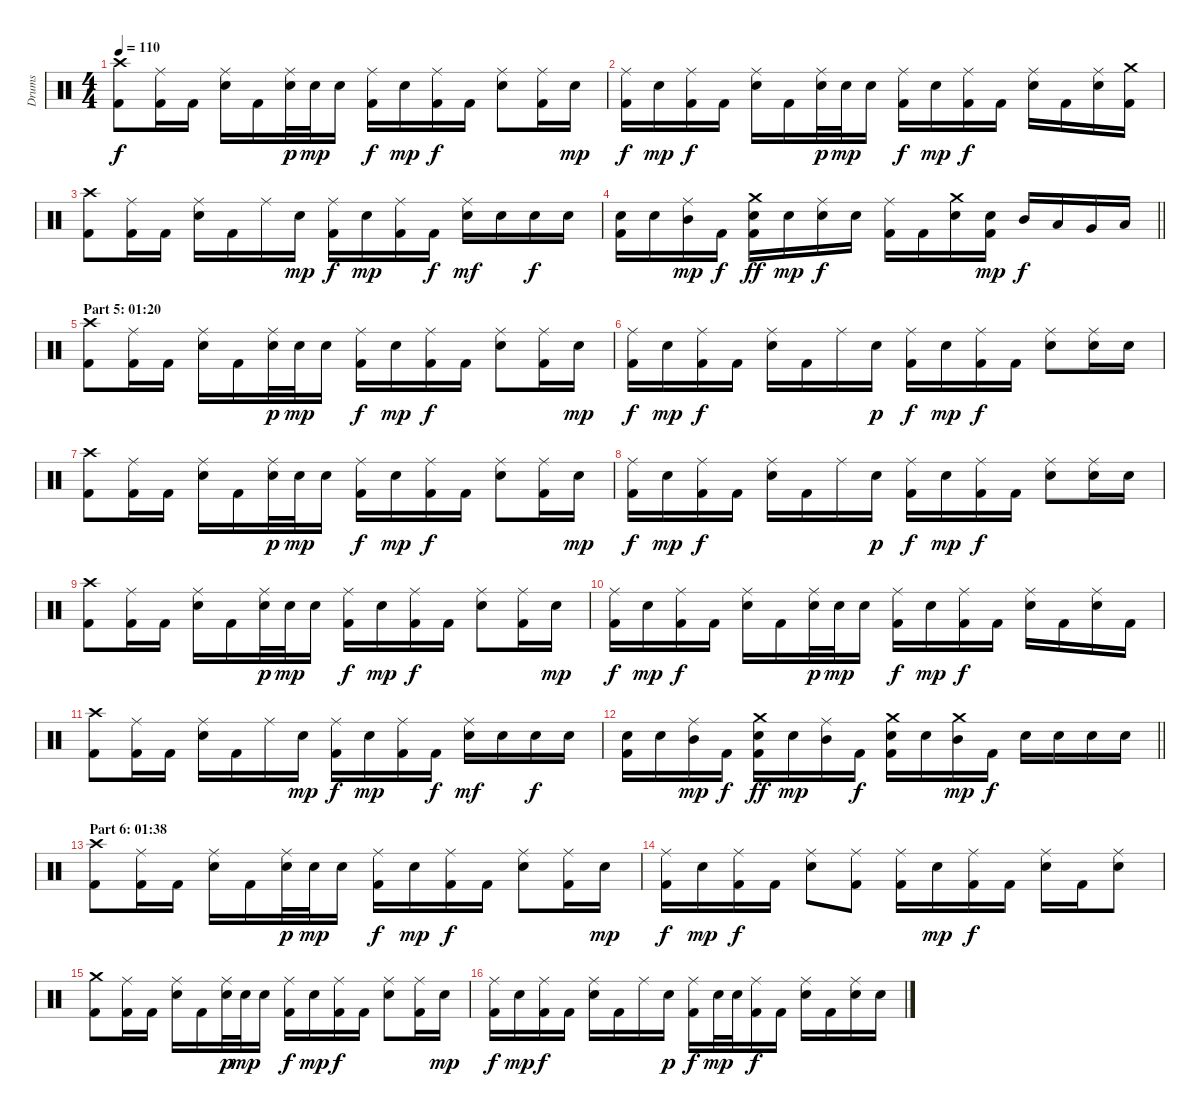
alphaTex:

\track ("Drums" "Drums") {instrument percussion}
\staff {score}
\articulation defaults
\ts (4 4)
\tempo 110
\clef neutral
\ks c
("Crash high (hit)" "Kick (hit) 2").8{dy f} ("Ride (middle)" "Kick (hit) 2").16 "Kick (hit) 2".16 ("Ride (middle)" "Electric Snare (hit)").16 "Kick (hit) 2".16 ("Ride (middle)" "Electric Snare (hit)").32{dy p} "Electric Snare (hit)".32{dy mp} "Electric Snare (hit)".16 ("Ride (middle)" "Kick (hit) 2").16{dy f} "Electric Snare (hit)".16{dy mp} ("Ride (middle)" "Kick (hit) 2").16{dy f} "Kick (hit) 2".16 ("Ride (middle)" "Electric Snare (hit)").8 ("Ride (middle)" "Kick (hit) 2").16 "Electric Snare (hit)".16{dy mp} |
("Ride (middle)" "Kick (hit) 2").16{dy f} "Electric Snare (hit)".16{dy mp} ("Ride (middle)" "Kick (hit) 2").16{dy f} "Kick (hit) 2".16 ("Ride (middle)" "Electric Snare (hit)").16 "Kick (hit) 2".16 ("Ride (middle)" "Electric Snare (hit)").32{dy p} "Electric Snare (hit)".32{dy mp} "Electric Snare (hit)".16 ("Ride (middle)" "Kick (hit) 2").16{dy f} "Electric Snare (hit)".16{dy mp} ("Ride (middle)" "Kick (hit) 2").16{dy f} "Kick (hit) 2".16 ("Ride (middle)" "Electric Snare (hit)").16 "Kick (hit) 2".16 ("Ride (middle)" "Electric Snare (hit)").16 ("Crash medium (hit)" "Kick (hit) 2").16 |
("Crash high (hit)" "Kick (hit) 2").8 ("Ride (middle)" "Kick (hit) 2").16 "Kick (hit) 2".16 ("Ride (middle)" "Electric Snare (hit)").16 "Kick (hit) 2".16 "Ride (middle)".16 "Electric Snare (hit)".16{dy mp} ("Ride (middle)" "Kick (hit) 2").16{dy f} "Electric Snare (hit)".16{dy mp} ("Ride (middle)" "Kick (hit) 2").16 "Kick (hit) 2".16{dy f} ("Ride (middle)" "Electric Snare (hit)").16{dy mf} "Electric Snare (hit)".16 "Electric Snare (hit)".16{dy f} "Electric Snare (hit)".16 |
\barLineRight lightlight
("Electric Snare (hit)" "Kick (hit) 2").16 "Electric Snare (hit)".16 ("Ride (middle)" "Mid Tom (hit)").16{dy mp} "Kick (hit) 2".16{dy f} ("Crash medium (hit)" "Electric Snare (hit)" "Kick (hit) 2").16{dy ff} "Electric Snare (hit)".16{dy mp} ("Ride (middle)" "Electric Snare (hit)").16{dy f} "Electric Snare (hit)".16 ("Ride (middle)" "Kick (hit) 2").16 "Kick (hit) 2".16 ("Crash medium (hit)" "Electric Snare (hit)").16 ("Electric Snare (hit)" "Kick (hit) 2").16{dy mp} "Mid Tom (hit)".16{dy f} "Low Tom (hit)".16 "Very Low Tom (hit)".16 "Low Floor Tom (hit)".16 |
\section ("" "Part 5: 01:20")
("Crash high (hit)" "Kick (hit) 2").8 ("Ride (middle)" "Kick (hit) 2").16 "Kick (hit) 2".16 ("Ride (middle)" "Electric Snare (hit)").16 "Kick (hit) 2".16 ("Ride (middle)" "Electric Snare (hit)").32{dy p} "Electric Snare (hit)".32{dy mp} "Electric Snare (hit)".16 ("Ride (middle)" "Kick (hit) 2").16{dy f} "Electric Snare (hit)".16{dy mp} ("Ride (middle)" "Kick (hit) 2").16{dy f} "Kick (hit) 2".16 ("Ride (middle)" "Electric Snare (hit)").8 ("Ride (middle)" "Kick (hit) 2").16 "Electric Snare (hit)".16{dy mp} |
("Ride (middle)" "Kick (hit) 2").16{dy f} "Electric Snare (hit)".16{dy mp} ("Ride (middle)" "Kick (hit) 2").16{dy f} "Kick (hit) 2".16 ("Ride (middle)" "Electric Snare (hit)").16 "Kick (hit) 2".16 "Ride (middle)".16 "Electric Snare (hit)".16{dy p} ("Ride (middle)" "Kick (hit) 2").16{dy f} "Electric Snare (hit)".16{dy mp} ("Ride (middle)" "Kick (hit) 2").16{dy f} "Kick (hit) 2".16 ("Ride (middle)" "Electric Snare (hit)").8 ("Ride (middle)" "Electric Snare (hit)").16 "Electric Snare (hit)".16 |
("Crash high (hit)" "Kick (hit) 2").8 ("Ride (middle)" "Kick (hit) 2").16 "Kick (hit) 2".16 ("Ride (middle)" "Electric Snare (hit)").16 "Kick (hit) 2".16 ("Ride (middle)" "Electric Snare (hit)").32{dy p} "Electric Snare (hit)".32{dy mp} "Electric Snare (hit)".16 ("Ride (middle)" "Kick (hit) 2").16{dy f} "Electric Snare (hit)".16{dy mp} ("Ride (middle)" "Kick (hit) 2").16{dy f} "Kick (hit) 2".16 ("Ride (middle)" "Electric Snare (hit)").8 ("Ride (middle)" "Kick (hit) 2").16 "Electric Snare (hit)".16{dy mp} |
("Ride (middle)" "Kick (hit) 2").16{dy f} "Electric Snare (hit)".16{dy mp} ("Ride (middle)" "Kick (hit) 2").16{dy f} "Kick (hit) 2".16 ("Ride (middle)" "Electric Snare (hit)").16 "Kick (hit) 2".16 "Ride (middle)".16 "Electric Snare (hit)".16{dy p} ("Ride (middle)" "Kick (hit) 2").16{dy f} "Electric Snare (hit)".16{dy mp} ("Ride (middle)" "Kick (hit) 2").16{dy f} "Kick (hit) 2".16 ("Ride (middle)" "Electric Snare (hit)").8 ("Ride (middle)" "Electric Snare (hit)").16 "Electric Snare (hit)".16 |
("Crash high (hit)" "Kick (hit) 2").8 ("Ride (middle)" "Kick (hit) 2").16 "Kick (hit) 2".16 ("Ride (middle)" "Electric Snare (hit)").16 "Kick (hit) 2".16 ("Ride (middle)" "Electric Snare (hit)").32{dy p} "Electric Snare (hit)".32{dy mp} "Electric Snare (hit)".16 ("Ride (middle)" "Kick (hit) 2").16{dy f} "Electric Snare (hit)".16{dy mp} ("Ride (middle)" "Kick (hit) 2").16{dy f} "Kick (hit) 2".16 ("Ride (middle)" "Electric Snare (hit)").8 ("Ride (middle)" "Kick (hit) 2").16 "Electric Snare (hit)".16{dy mp} |
("Ride (middle)" "Kick (hit) 2").16{dy f} "Electric Snare (hit)".16{dy mp} ("Ride (middle)" "Kick (hit) 2").16{dy f} "Kick (hit) 2".16 ("Ride (middle)" "Electric Snare (hit)").16 "Kick (hit) 2".16 ("Ride (middle)" "Electric Snare (hit)").32{dy p} "Electric Snare (hit)".32{dy mp} "Electric Snare (hit)".16 ("Ride (middle)" "Kick (hit) 2").16{dy f} "Electric Snare (hit)".16{dy mp} ("Ride (middle)" "Kick (hit) 2").16{dy f} "Kick (hit) 2".16 ("Ride (middle)" "Electric Snare (hit)").16 "Kick (hit) 2".16 ("Ride (middle)" "Electric Snare (hit)").16 "Kick (hit) 2".16 |
("Crash high (hit)" "Kick (hit) 2").8 ("Ride (middle)" "Kick (hit) 2").16 "Kick (hit) 2".16 ("Ride (middle)" "Electric Snare (hit)").16 "Kick (hit) 2".16 "Ride (middle)".16 "Electric Snare (hit)".16{dy mp} ("Ride (middle)" "Kick (hit) 2").16{dy f} "Electric Snare (hit)".16{dy mp} ("Ride (middle)" "Kick (hit) 2").16 "Kick (hit) 2".16{dy f} ("Ride (middle)" "Electric Snare (hit)").16{dy mf} "Electric Snare (hit)".16 "Electric Snare (hit)".16{dy f} "Electric Snare (hit)".16 |
\barLineRight lightlight
("Electric Snare (hit)" "Kick (hit) 2").16 "Electric Snare (hit)".16 ("Ride (middle)" "Mid Tom (hit)").16{dy mp} "Kick (hit) 2".16{dy f} ("Crash medium (hit)" "Electric Snare (hit)" "Kick (hit) 2").16{dy ff} "Electric Snare (hit)".16{dy mp} ("Ride (middle)" "Mid Tom (hit)").16 "Kick (hit) 2".16{dy f} ("Crash medium (hit)" "Electric Snare (hit)" "Kick (hit) 2").16 "Electric Snare (hit)".16 ("Crash medium (hit)" "Mid Tom (hit)").16{dy mp} "Kick (hit) 2".16{dy f} "Electric Snare (hit)".16 "Electric Snare (hit)".16 "Electric Snare (hit)".16 "Electric Snare (hit)".16 |
\section ("" "Part 6: 01:38")
("Crash high (hit)" "Kick (hit) 2").8 ("Ride (middle)" "Kick (hit) 2").16 "Kick (hit) 2".16 ("Ride (middle)" "Electric Snare (hit)").16 "Kick (hit) 2".16 ("Ride (middle)" "Electric Snare (hit)").32{dy p} "Electric Snare (hit)".32{dy mp} "Electric Snare (hit)".16 ("Ride (middle)" "Kick (hit) 2").16{dy f} "Electric Snare (hit)".16{dy mp} ("Ride (middle)" "Kick (hit) 2").16{dy f} "Kick (hit) 2".16 ("Ride (middle)" "Electric Snare (hit)").8 ("Ride (middle)" "Kick (hit) 2").16 "Electric Snare (hit)".16{dy mp} |
("Ride (middle)" "Kick (hit) 2").16{dy f} "Electric Snare (hit)".16{dy mp} ("Ride (middle)" "Kick (hit) 2").16{dy f} "Kick (hit) 2".16 ("Ride (middle)" "Electric Snare (hit)").8 ("Ride (middle)" "Kick (hit) 2").8 ("Ride (middle)" "Kick (hit) 2").16 "Electric Snare (hit)".16{dy mp} ("Ride (middle)" "Kick (hit) 2").16{dy f} "Kick (hit) 2".16 ("Ride (middle)" "Electric Snare (hit)").16 "Kick (hit) 2".16 ("Ride (middle)" "Electric Snare (hit)").8 |
("Crash medium (hit)" "Kick (hit) 2").8 ("Ride (middle)" "Kick (hit) 2").16 "Kick (hit) 2".16 ("Ride (middle)" "Electric Snare (hit)").16 "Kick (hit) 2".16 ("Ride (middle)" "Electric Snare (hit)").32{dy p} "Electric Snare (hit)".32{dy mp} "Electric Snare (hit)".16 ("Ride (middle)" "Kick (hit) 2").16{dy f} "Electric Snare (hit)".16{dy mp} ("Ride (middle)" "Kick (hit) 2").16{dy f} "Kick (hit) 2".16 ("Ride (middle)" "Electric Snare (hit)").8 ("Ride (middle)" "Kick (hit) 2").16 "Electric Snare (hit)".16{dy mp} |
("Ride (middle)" "Kick (hit) 2").16{dy f} "Electric Snare (hit)".16{dy mp} ("Ride (middle)" "Kick (hit) 2").16{dy f} "Kick (hit) 2".16 ("Ride (middle)" "Electric Snare (hit)").16 "Kick (hit) 2".16 "Ride (middle)".16 "Electric Snare (hit)".16{dy p} ("Ride (middle)" "Kick (hit) 2").16{dy f} "Electric Snare (hit)".32{dy mp} "Electric Snare (hit)".32 ("Ride (middle)" "Kick (hit) 2").16{dy f} "Kick (hit) 2".16 ("Ride (middle)" "Electric Snare (hit)").16 "Kick (hit) 2".16 ("Ride (middle)" "Electric Snare (hit)").16 "Electric Snare (hit)".16
